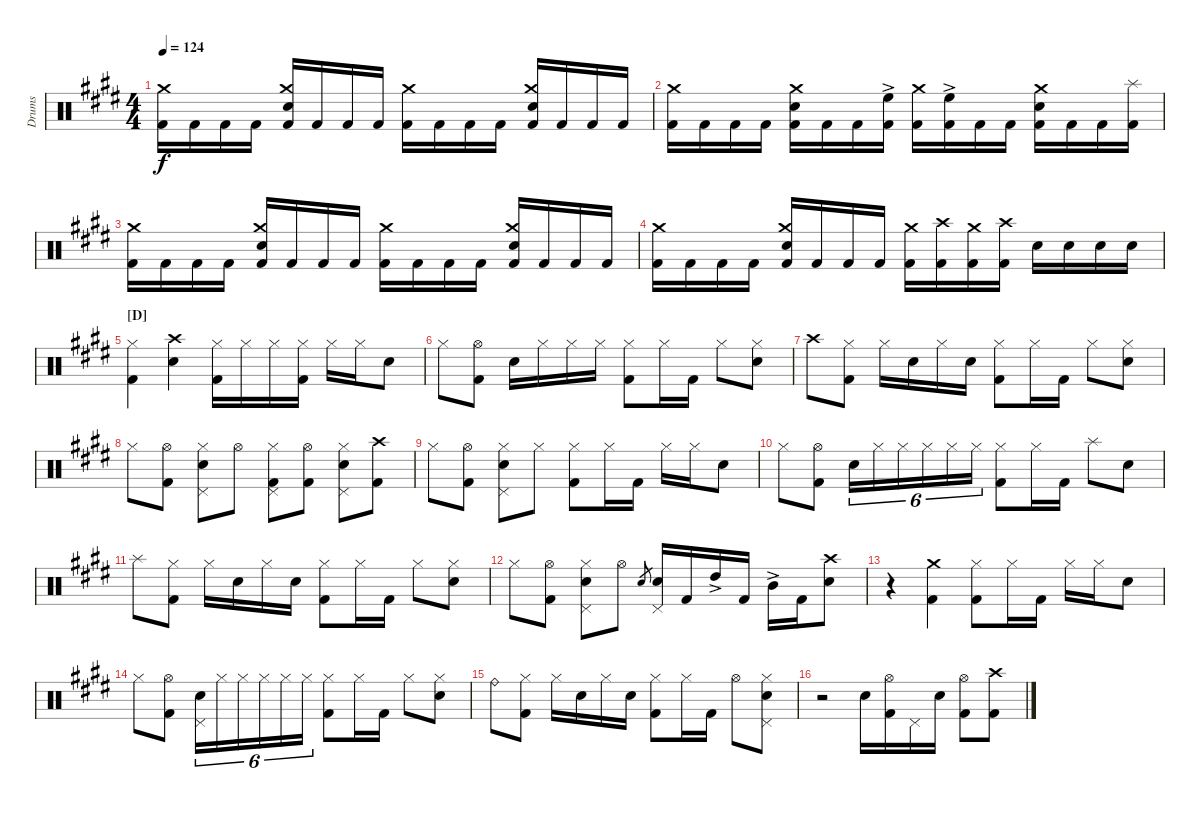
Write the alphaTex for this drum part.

\defaultSystemsLayout 4
\bracketExtendMode groupsimilarinstruments
\otherSystemsTrackNameOrientation horizontal
\track ("Drumkit" "Drums") {multiBarRest instrument percussion}
\staff {score}
\articulation defaults
\ts (4 4)
\tempo 124
\clef neutral
\ks c#minor
("Kick (hit) 2"{acc forcenatural} "Crash medium (hit)"{acc forcenatural}).16{dy f} "Kick (hit) 2"{acc forcenatural}.16 "Kick (hit) 2"{acc forcenatural}.16 "Kick (hit) 2"{acc forcenatural}.16 ("Kick (hit) 2"{acc forcenatural} "Snare (hit) 2"{acc forcenatural} "Crash medium (hit)"{acc forcenatural}).16 "Kick (hit) 2"{acc forcenatural}.16 "Kick (hit) 2"{acc forcenatural}.16 "Kick (hit) 2"{acc forcenatural}.16 ("Kick (hit) 2"{acc forcenatural} "Crash medium (hit)"{acc forcenatural}).16 "Kick (hit) 2"{acc forcenatural}.16 "Kick (hit) 2"{acc forcenatural}.16 "Kick (hit) 2"{acc forcenatural}.16 ("Kick (hit) 2"{acc forcenatural} "Snare (hit) 2"{acc forcenatural} "Crash medium (hit)"{acc forcenatural}).16 "Kick (hit) 2"{acc forcenatural}.16 "Kick (hit) 2"{acc forcenatural}.16 "Kick (hit) 2"{acc forcenatural}.16 |
("Kick (hit) 2"{acc forcenatural} "Crash medium (hit)"{acc forcenatural}).16 "Kick (hit) 2"{acc forcenatural}.16 "Kick (hit) 2"{acc forcenatural}.16 "Kick (hit) 2"{acc forcenatural}.16 ("Kick (hit) 2"{acc forcenatural} "Snare (hit) 2"{acc forcenatural} "Crash medium (hit)"{acc forcenatural}).16 "Kick (hit) 2"{acc forcenatural}.16 "Kick (hit) 2"{acc forcenatural}.16 ("Kick (hit) 2"{acc forcenatural} "High Floor Tom (hit)"{ac acc forcenatural}).16 ("Kick (hit) 2"{acc forcenatural} "Crash medium (hit)"{acc forcenatural}).16 ("Kick (hit) 2"{acc forcenatural} "High Floor Tom (hit)"{ac acc forcenatural}).16 "Kick (hit) 2"{acc forcenatural}.16 "Kick (hit) 2"{acc forcenatural}.16 ("Kick (hit) 2"{acc forcenatural} "Snare (hit) 2"{acc forcenatural} "Crash medium (hit)"{acc forcenatural}).16 "Kick (hit) 2"{acc forcenatural}.16 "Kick (hit) 2"{acc forcenatural}.16 ("Kick (hit) 2"{acc forcenatural} "Splash (hit)"{acc forcenatural}).16 |
("Kick (hit) 2"{acc forcenatural} "Crash medium (hit)"{acc forcenatural}).16 "Kick (hit) 2"{acc forcenatural}.16 "Kick (hit) 2"{acc forcenatural}.16 "Kick (hit) 2"{acc forcenatural}.16 ("Kick (hit) 2"{acc forcenatural} "Snare (hit) 2"{acc forcenatural} "Crash medium (hit)"{acc forcenatural}).16 "Kick (hit) 2"{acc forcenatural}.16 "Kick (hit) 2"{acc forcenatural}.16 "Kick (hit) 2"{acc forcenatural}.16 ("Kick (hit) 2"{acc forcenatural} "Crash medium (hit)"{acc forcenatural}).16 "Kick (hit) 2"{acc forcenatural}.16 "Kick (hit) 2"{acc forcenatural}.16 "Kick (hit) 2"{acc forcenatural}.16 ("Kick (hit) 2"{acc forcenatural} "Snare (hit) 2"{acc forcenatural} "Crash medium (hit)"{acc forcenatural}).16 "Kick (hit) 2"{acc forcenatural}.16 "Kick (hit) 2"{acc forcenatural}.16 "Kick (hit) 2"{acc forcenatural}.16 |
("Kick (hit) 2"{acc forcenatural} "Crash medium (hit)"{acc forcenatural}).16 "Kick (hit) 2"{acc forcenatural}.16 "Kick (hit) 2"{acc forcenatural}.16 "Kick (hit) 2"{acc forcenatural}.16 ("Kick (hit) 2"{acc forcenatural} "Snare (hit) 2"{acc forcenatural} "Crash medium (hit)"{acc forcenatural}).16 "Kick (hit) 2"{acc forcenatural}.16 "Kick (hit) 2"{acc forcenatural}.16 "Kick (hit) 2"{acc forcenatural}.16 ("Kick (hit) 2"{acc forcenatural} "Crash medium (hit)"{acc forcenatural}).16 ("Kick (hit) 2"{acc forcenatural} "Crash high (hit)"{acc forcenatural}).16 ("Kick (hit) 2"{acc forcenatural} "Crash medium (hit)"{acc forcenatural}).16 ("Kick (hit) 2"{acc forcenatural} "Crash high (hit)"{acc forcenatural}).16 "Snare (hit) 2"{acc forcenatural}.16 "Snare (hit) 2"{acc forcenatural}.16 "Snare (hit) 2"{acc forcenatural}.16 "Snare (hit) 2"{acc forcenatural}.16 |
\section ("D" "")
("Hi-Hat (closed)"{acc forcenatural} "Kick (hit) 2"{acc forcenatural}).4 ("Crash high (hit)"{acc forcenatural} "Snare (hit) 2"{acc forcenatural}).4 ("Kick (hit) 2"{acc forcenatural} "Hi-Hat (closed)"{acc forcenatural}).16 "Hi-Hat (closed)"{acc forcenatural}.16 "Hi-Hat (closed)"{acc forcenatural}.16 ("Kick (hit) 2"{acc forcenatural} "Hi-Hat (closed)"{acc forcenatural}).16 "Hi-Hat (closed)"{acc forcenatural}.16 "Hi-Hat (closed)"{acc forcenatural}.16 "Snare (hit) 2"{acc forcenatural}.8 |
"Hi-Hat (closed)"{acc forcenatural}.8 ("Hi-Hat (open)"{acc forcenatural} "Kick (hit) 2"{acc forcenatural}).8 "Snare (hit) 2"{acc forcenatural}.16 "Hi-Hat (closed)"{acc forcenatural}.16 "Hi-Hat (closed)"{acc forcenatural}.16 "Hi-Hat (closed)"{acc forcenatural}.16 ("Hi-Hat (closed)"{acc forcenatural} "Kick (hit) 2"{acc forcenatural}).8 "Hi-Hat (closed)"{acc forcenatural}.16 "Kick (hit) 2"{acc forcenatural}.16 "Hi-Hat (closed)"{acc forcenatural}.8 ("Snare (hit) 2"{acc forcenatural} "Hi-Hat (closed)"{acc forcenatural}).8 |
"Crash high (hit)"{acc forcenatural}.8 ("Kick (hit) 2"{acc forcenatural} "Hi-Hat (closed)"{acc forcenatural}).8 "Hi-Hat (closed)"{acc forcenatural}.16 "Snare (hit) 2"{acc forcenatural}.16 "Hi-Hat (closed)"{acc forcenatural}.16 "Snare (hit) 2"{acc forcenatural}.16 ("Kick (hit) 2"{acc forcenatural} "Hi-Hat (closed)"{acc forcenatural}).8 "Hi-Hat (closed)"{acc forcenatural}.16 "Kick (hit) 2"{acc forcenatural}.16 "Hi-Hat (closed)"{acc forcenatural}.8 ("Snare (hit) 2"{acc forcenatural} "Hi-Hat (closed)"{acc forcenatural}).8 |
"Hi-Hat (closed)"{acc forcenatural}.8 ("Kick (hit) 2"{acc forcenatural} "Hi-Hat (open)"{acc forcenatural}).8 ("Hi-Hat (closed)"{acc forcenatural} "Snare (hit) 2"{acc forcenatural} "Pedal Hi-Hat (hit)"{acc forcenatural}).8 "Hi-Hat (open)"{acc forcenatural}.8 ("Kick (hit) 2"{acc forcenatural} "Pedal Hi-Hat (hit)"{acc forcenatural} "Hi-Hat (closed)"{acc forcenatural}).8 ("Hi-Hat (open)"{acc forcenatural} "Kick (hit) 2"{acc forcenatural}).8 ("Hi-Hat (closed)"{acc forcenatural} "Snare (hit) 2"{acc forcenatural} "Pedal Hi-Hat (hit)"{acc forcenatural}).8 ("Crash high (hit)"{acc forcenatural} "Kick (hit) 2"{acc forcenatural}).8 |
"Hi-Hat (closed)"{acc forcenatural}.8 ("Hi-Hat (open)"{acc forcenatural} "Kick (hit) 2"{acc forcenatural}).8 ("Hi-Hat (closed)"{acc forcenatural} "Snare (hit) 2"{acc forcenatural} "Pedal Hi-Hat (hit)"{acc forcenatural}).8 "Hi-Hat (closed)"{acc forcenatural}.8 ("Hi-Hat (closed)"{acc forcenatural} "Kick (hit) 2"{acc forcenatural}).8 "Hi-Hat (closed)"{acc forcenatural}.16 "Kick (hit) 2"{acc forcenatural}.16 "Hi-Hat (closed)"{acc forcenatural}.16 "Hi-Hat (closed)"{acc forcenatural}.16 "Snare (hit) 2"{acc forcenatural}.8 |
"Hi-Hat (closed)"{acc forcenatural}.8 ("Hi-Hat (open)"{acc forcenatural} "Kick (hit) 2"{acc forcenatural}).8 "Snare (hit) 2"{acc forcenatural}.16{tu (6 4)} "Hi-Hat (closed)"{acc forcenatural}.16{tu (6 4)} "Hi-Hat (closed)"{acc forcenatural}.16{tu (6 4)} "Hi-Hat (closed)"{acc forcenatural}.16{tu (6 4)} "Hi-Hat (closed)"{acc forcenatural}.16{tu (6 4)} "Hi-Hat (closed)"{acc forcenatural}.16{tu (6 4)} ("Hi-Hat (closed)"{acc forcenatural} "Kick (hit) 2"{acc forcenatural}).8 "Hi-Hat (closed)"{acc forcenatural}.16 "Kick (hit) 2"{acc forcenatural}.16 "Splash (hit)"{acc forcenatural}.8 "Snare (hit) 2"{acc forcenatural}.8 |
"Splash (hit)"{acc forcenatural}.8 ("Kick (hit) 2"{acc forcenatural} "Hi-Hat (closed)"{acc forcenatural}).8 "Hi-Hat (closed)"{acc forcenatural}.16 "Snare (hit) 2"{acc forcenatural}.16 "Hi-Hat (closed)"{acc forcenatural}.16 "Snare (hit) 2"{acc forcenatural}.16 ("Kick (hit) 2"{acc forcenatural} "Hi-Hat (closed)"{acc forcenatural}).8 "Hi-Hat (closed)"{acc forcenatural}.16 "Kick (hit) 2"{acc forcenatural}.16 "Hi-Hat (closed)"{acc forcenatural}.8 ("Hi-Hat (closed)"{acc forcenatural} "Snare (hit) 2"{acc forcenatural}).8 |
"Hi-Hat (closed)"{acc forcenatural}.8 ("Kick (hit) 2"{acc forcenatural} "Hi-Hat (open)"{acc forcenatural}).8 ("Snare (hit) 2"{acc forcenatural} "Hi-Hat (closed)"{acc forcenatural} "Pedal Hi-Hat (hit)"{acc forcenatural}).8 "Hi-Hat (open)"{acc forcenatural}.8 "Snare (hit) 2"{acc forcenatural}.8{gr} ("Snare (hit) 2"{acc forcenatural} "Pedal Hi-Hat (hit)"{acc forcenatural}).16 "Kick (hit) 2"{acc forcenatural}.16 "High Tom (hit)"{ac acc forcenatural}.16 "Kick (hit) 2"{acc forcenatural}.16 "Mid Tom (hit)"{ac acc forcenatural}.16 "Kick (hit) 2"{acc forcenatural}.16 ("Snare (hit) 2"{acc forcenatural} "Crash high (hit)"{acc forcenatural}).8 |
r.4 ("Kick (hit) 2"{acc forcenatural} "Crash medium (hit)"{acc forcenatural}).4 ("Hi-Hat (closed)"{acc forcenatural} "Kick (hit) 2"{acc forcenatural}).8 "Hi-Hat (closed)"{acc forcenatural}.16 "Kick (hit) 2"{acc forcenatural}.16 "Hi-Hat (closed)"{acc forcenatural}.16 "Hi-Hat (closed)"{acc forcenatural}.16 "Snare (hit) 2"{acc forcenatural}.8 |
"Hi-Hat (closed)"{acc forcenatural}.8 ("Hi-Hat (open)"{acc forcenatural} "Kick (hit) 2"{acc forcenatural}).8 ("Snare (hit) 2"{acc forcenatural} "Pedal Hi-Hat (hit)"{acc forcenatural}).16{tu (6 4)} "Hi-Hat (closed)"{acc forcenatural}.16{tu (6 4)} "Hi-Hat (closed)"{acc forcenatural}.16{tu (6 4)} "Hi-Hat (closed)"{acc forcenatural}.16{tu (6 4)} "Hi-Hat (closed)"{acc forcenatural}.16{tu (6 4)} "Hi-Hat (closed)"{acc forcenatural}.16{tu (6 4)} ("Hi-Hat (closed)"{acc forcenatural} "Kick (hit) 2"{acc forcenatural}).8 "Hi-Hat (closed)"{acc forcenatural}.16 "Kick (hit) 2"{acc forcenatural}.16 "Hi-Hat (closed)"{acc forcenatural}.8 ("Snare (hit) 2"{acc forcenatural} "Hi-Hat (closed)"{acc forcenatural}).8 |
"Ride (bell)"{acc forcenatural}.8 ("Kick (hit) 2"{acc forcenatural} "Hi-Hat (closed)"{acc forcenatural}).8 "Hi-Hat (closed)"{acc forcenatural}.16 "Snare (hit) 2"{acc forcenatural}.16 "Hi-Hat (closed)"{acc forcenatural}.16 "Snare (hit) 2"{acc forcenatural}.16 ("Hi-Hat (closed)"{acc forcenatural} "Kick (hit) 2"{acc forcenatural}).8 "Hi-Hat (closed)"{acc forcenatural}.16 "Kick (hit) 2"{acc forcenatural}.16 "Hi-Hat (open)"{acc forcenatural}.8 ("Snare (hit) 2"{acc forcenatural} "Hi-Hat (closed)"{acc forcenatural} "Pedal Hi-Hat (hit)"{acc forcenatural}).8 |
r.2 "Snare (hit) 2"{acc forcenatural}.16 ("Kick (hit) 2"{acc forcenatural} "Hi-Hat (open)"{acc forcenatural}).16 "Pedal Hi-Hat (hit)"{acc forcenatural}.16 "Snare (hit) 2"{acc forcenatural}.16 ("Kick (hit) 2"{acc forcenatural} "Hi-Hat (open)"{acc forcenatural}).8 ("Crash high (hit)"{acc forcenatural} "Kick (hit) 2"{acc forcenatural}).8
